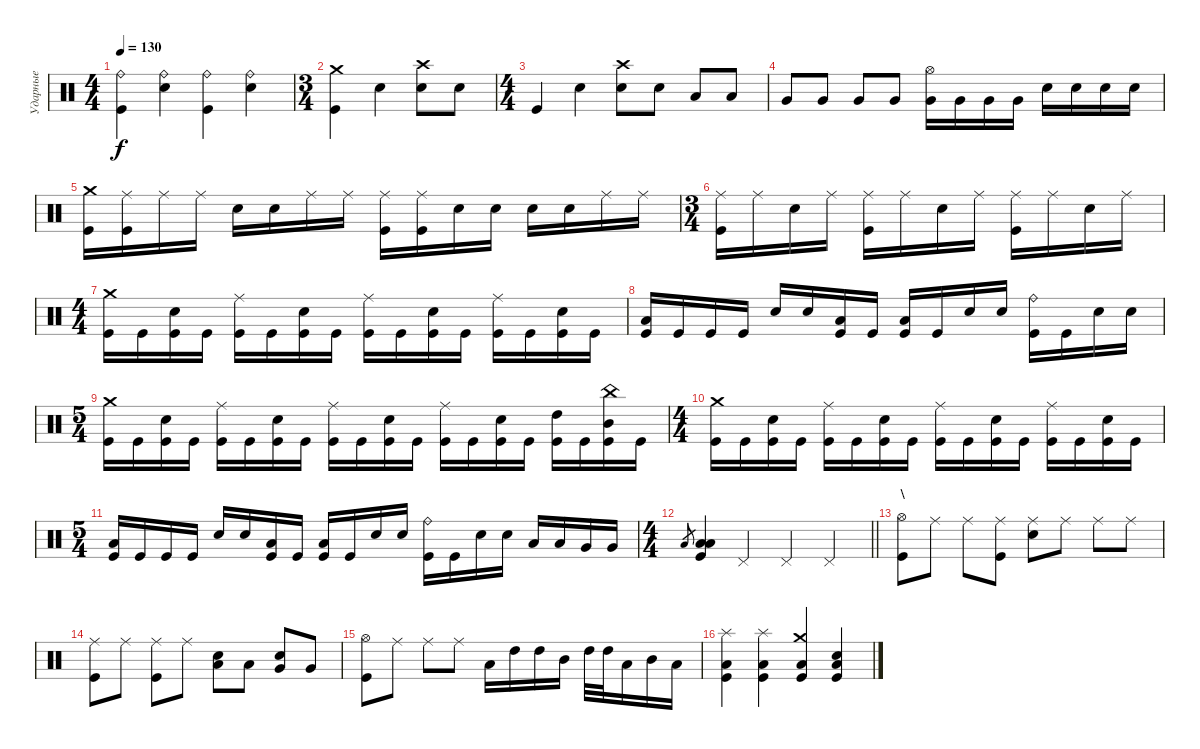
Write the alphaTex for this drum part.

\track ("Ударные" "Ударные") {instrument percussion}
\staff {score}
\articulation defaults
\ts (4 4)
\section ("" " ")
\tempo 130
\clef neutral
\ks c
("Ride (bell)" "Kick (hit)").4{dy f} ("Ride (bell)" "Electric Snare (hit)").4 ("Ride (bell)" "Kick (hit)").4 ("Ride (bell)" "Electric Snare (hit)").4 |
\ts (3 4)
("Crash medium (hit)" "Kick (hit)").4 "Electric Snare (hit)".4 ("Crash high (hit)" "Electric Snare (hit)").8 "Electric Snare (hit)".8 |
\ts (4 4)
"Kick (hit)".4 "Electric Snare (hit)".4 ("Crash high (hit)" "Electric Snare (hit)").8 "Electric Snare (hit)".8 "Low Tom (hit)".8 "Low Tom (hit)".8 |
"Very Low Tom (hit)".8 "Very Low Tom (hit)".8 "Very Low Tom (hit)".8 "Very Low Tom (hit)".8 ("Hi-Hat (open)" "Very Low Tom (hit)").16 "Very Low Tom (hit)".16 "Very Low Tom (hit)".16 "Very Low Tom (hit)".16 "Electric Snare (hit)".16 "Electric Snare (hit)".16 "Electric Snare (hit)".16 "Electric Snare (hit)".16 |
("Crash medium (hit)" "Kick (hit)").16 ("Ride (middle)" "Kick (hit)").16 "Ride (middle)".16 "Ride (middle)".16 "Electric Snare (hit)".16 "Electric Snare (hit)".16 "Ride (middle)".16 "Ride (middle)".16 ("Ride (middle)" "Kick (hit)").16 ("Ride (middle)" "Kick (hit)").16 "Electric Snare (hit)".16 "Electric Snare (hit)".16 "Electric Snare (hit)".16 "Electric Snare (hit)".16 "Ride (middle)".16 "Ride (middle)".16 |
\ts (3 4)
("Ride (middle)" "Kick (hit)").16 "Ride (middle)".16 "Electric Snare (hit)".16 "Ride (middle)".16 ("Ride (middle)" "Kick (hit)").16 "Ride (middle)".16 "Electric Snare (hit)".16 "Ride (middle)".16 ("Ride (middle)" "Kick (hit)").16 "Ride (middle)".16 "Electric Snare (hit)".16 "Ride (middle)".16 |
\ts (4 4)
("Crash medium (hit)" "Kick (hit)").16 "Kick (hit)".16 ("Electric Snare (hit)" "Kick (hit)").16 "Kick (hit)".16 ("Ride (middle)" "Kick (hit)").16 "Kick (hit)".16 ("Electric Snare (hit)" "Kick (hit)").16 "Kick (hit)".16 ("Ride (middle)" "Kick (hit)").16 "Kick (hit)".16 ("Electric Snare (hit)" "Kick (hit)").16 "Kick (hit)".16 ("Ride (middle)" "Kick (hit)").16 "Kick (hit)".16 ("Electric Snare (hit)" "Kick (hit)").16 "Kick (hit)".16 |
("Low Floor Tom (hit)" "Kick (hit)").16 "Kick (hit)".16 "Kick (hit)".16 "Kick (hit)".16 "Electric Snare (hit)".16 "Electric Snare (hit)".16 ("Low Floor Tom (hit)" "Kick (hit)").16 "Kick (hit)".16 ("Low Floor Tom (hit)" "Kick (hit)").16 "Kick (hit)".16 "Electric Snare (hit)".16 "Electric Snare (hit)".16 ("Ride (bell)" "Kick (hit)").16 "Kick (hit)".16 "Electric Snare (hit)".16 "Electric Snare (hit)".16 |
\ts (5 4)
("Crash medium (hit)" "Kick (hit)").16 "Kick (hit)".16 ("Electric Snare (hit)" "Kick (hit)").16 "Kick (hit)".16 ("Ride (middle)" "Kick (hit)").16 "Kick (hit)".16 ("Electric Snare (hit)" "Kick (hit)").16 "Kick (hit)".16 ("Ride (middle)" "Kick (hit)").16 "Kick (hit)".16 ("Electric Snare (hit)" "Kick (hit)").16 "Kick (hit)".16 ("Ride (middle)" "Kick (hit)").16 "Kick (hit)".16 ("Electric Snare (hit)" "Kick (hit)").16 "Kick (hit)".16 ("High Tom (hit)" "Kick (hit)").16 "Kick (hit)".16 ("Mid Tom (hit)" "China (hit)" "Kick (hit)").16 "Kick (hit)".16 |
\ts (4 4)
("Crash medium (hit)" "Kick (hit)").16 "Kick (hit)".16 ("Electric Snare (hit)" "Kick (hit)").16 "Kick (hit)".16 ("Ride (middle)" "Kick (hit)").16 "Kick (hit)".16 ("Electric Snare (hit)" "Kick (hit)").16 "Kick (hit)".16 ("Ride (middle)" "Kick (hit)").16 "Kick (hit)".16 ("Electric Snare (hit)" "Kick (hit)").16 "Kick (hit)".16 ("Ride (middle)" "Kick (hit)").16 "Kick (hit)".16 ("Electric Snare (hit)" "Kick (hit)").16 "Kick (hit)".16 |
\ts (5 4)
("Low Floor Tom (hit)" "Kick (hit)").16 "Kick (hit)".16 "Kick (hit)".16 "Kick (hit)".16 "Electric Snare (hit)".16 "Electric Snare (hit)".16 ("Low Floor Tom (hit)" "Kick (hit)").16 "Kick (hit)".16 ("Low Floor Tom (hit)" "Kick (hit)").16 "Kick (hit)".16 "Electric Snare (hit)".16 "Electric Snare (hit)".16 ("Ride (bell)" "Kick (hit)").16 "Kick (hit)".16 "Electric Snare (hit)".16 "Electric Snare (hit)".16 "Low Tom (hit)".16 "Low Tom (hit)".16 "Very Low Tom (hit)".16 "Very Low Tom (hit)".16 |
\ts (4 4)
\barLineRight lightlight "Low Floor Tom (hit)".8{gr}
("Low Floor Tom (hit)" "Low Floor Tom (hit)" "Kick (hit)").4 "Pedal Hi-Hat (hit)".4 "Pedal Hi-Hat (hit)".4 "Pedal Hi-Hat (hit)".4 |
\section ("" " \\")
("Kick (hit)" "Hi-Hat (open)").8 "Ride (middle)".8 "Ride (middle)".8 ("Kick (hit)" "Ride (middle)").8 ("Electric Snare (hit)" "Ride (middle)").8 "Ride (middle)".8 "Ride (middle)".8 "Ride (middle)".8 |
("Kick (hit)" "Ride (middle)").8 "Ride (middle)".8 ("Kick (hit)" "Ride (middle)").8 "Ride (middle)".8 ("Low Tom (hit)" "Electric Snare (hit)").8 "Low Tom (hit)".8 ("Very Low Tom (hit)" "Electric Snare (hit)").8 "Very Low Tom (hit)".8 |
("Kick (hit)" "Hi-Hat (open)").8 "Ride (middle)".8 "Ride (middle)".8 "Ride (middle)".8 "Low Tom (hit)".16 "High Tom (hit)".16 "High Tom (hit)".16 "Mid Tom (hit)".16 "High Tom (hit)".32 "High Tom (hit)".32 "Low Tom (hit)".16 "Mid Tom (hit)".16 "Low Tom (hit)".16 |
("Splash (hit)" "Kick (hit)" "Low Floor Tom (hit)").4 ("Splash (hit)" "Kick (hit)" "Low Floor Tom (hit)").4 ("Crash medium (hit)" "Kick (hit)" "Low Floor Tom (hit)").4 ("Electric Snare (hit)" "Kick (hit)" "Low Floor Tom (hit)").4
